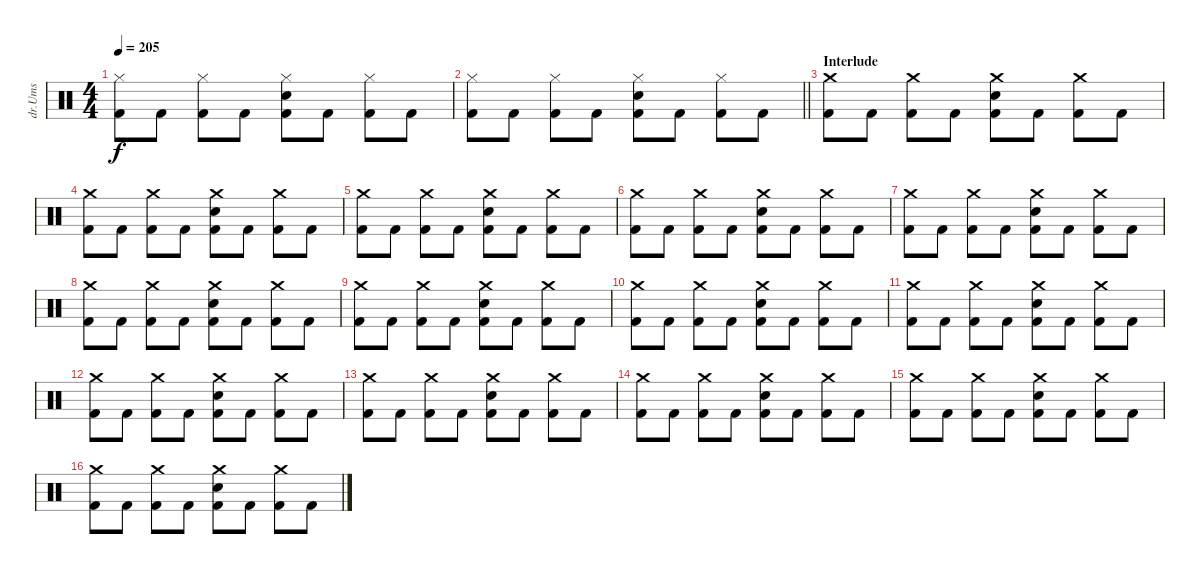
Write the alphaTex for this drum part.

\track ("dr.Ums" "dr.Ums") {instrument percussion}
\staff {score}
\articulation defaults
\ts (4 4)
\tempo 205
\clef neutral
\ks c
("Hi-Hat (closed)" "Kick (hit) 2").8{dy f} "Kick (hit) 2".8 ("Hi-Hat (closed)" "Kick (hit) 2").8 "Kick (hit) 2".8 ("Hi-Hat (closed)" "Snare (hit) 2" "Kick (hit) 2").8 "Kick (hit) 2".8 ("Hi-Hat (closed)" "Kick (hit) 2").8 "Kick (hit) 2".8 |
\barLineRight lightlight
("Hi-Hat (closed)" "Kick (hit) 2").8 "Kick (hit) 2".8 ("Hi-Hat (closed)" "Kick (hit) 2").8 "Kick (hit) 2".8 ("Hi-Hat (closed)" "Snare (hit) 2" "Kick (hit) 2").8 "Kick (hit) 2".8 ("Hi-Hat (closed)" "Kick (hit) 2").8 "Kick (hit) 2".8 |
\section ("" "Interlude")
("Crash medium (hit)" "Kick (hit) 2").8 "Kick (hit) 2".8 ("Crash medium (hit)" "Kick (hit) 2").8 "Kick (hit) 2".8 ("Crash medium (hit)" "Snare (hit) 2" "Kick (hit) 2").8 "Kick (hit) 2".8 ("Crash medium (hit)" "Kick (hit) 2").8 "Kick (hit) 2".8 |
("Crash medium (hit)" "Kick (hit) 2").8 "Kick (hit) 2".8 ("Crash medium (hit)" "Kick (hit) 2").8 "Kick (hit) 2".8 ("Crash medium (hit)" "Snare (hit) 2" "Kick (hit) 2").8 "Kick (hit) 2".8 ("Crash medium (hit)" "Kick (hit) 2").8 "Kick (hit) 2".8 |
("Crash medium (hit)" "Kick (hit) 2").8 "Kick (hit) 2".8 ("Crash medium (hit)" "Kick (hit) 2").8 "Kick (hit) 2".8 ("Crash medium (hit)" "Snare (hit) 2" "Kick (hit) 2").8 "Kick (hit) 2".8 ("Crash medium (hit)" "Kick (hit) 2").8 "Kick (hit) 2".8 |
("Crash medium (hit)" "Kick (hit) 2").8 "Kick (hit) 2".8 ("Crash medium (hit)" "Kick (hit) 2").8 "Kick (hit) 2".8 ("Crash medium (hit)" "Snare (hit) 2" "Kick (hit) 2").8 "Kick (hit) 2".8 ("Crash medium (hit)" "Kick (hit) 2").8 "Kick (hit) 2".8 |
("Crash medium (hit)" "Kick (hit) 2").8 "Kick (hit) 2".8 ("Crash medium (hit)" "Kick (hit) 2").8 "Kick (hit) 2".8 ("Crash medium (hit)" "Snare (hit) 2" "Kick (hit) 2").8 "Kick (hit) 2".8 ("Crash medium (hit)" "Kick (hit) 2").8 "Kick (hit) 2".8 |
("Crash medium (hit)" "Kick (hit) 2").8 "Kick (hit) 2".8 ("Crash medium (hit)" "Kick (hit) 2").8 "Kick (hit) 2".8 ("Crash medium (hit)" "Snare (hit) 2" "Kick (hit) 2").8 "Kick (hit) 2".8 ("Crash medium (hit)" "Kick (hit) 2").8 "Kick (hit) 2".8 |
("Crash medium (hit)" "Kick (hit) 2").8 "Kick (hit) 2".8 ("Crash medium (hit)" "Kick (hit) 2").8 "Kick (hit) 2".8 ("Crash medium (hit)" "Snare (hit) 2" "Kick (hit) 2").8 "Kick (hit) 2".8 ("Crash medium (hit)" "Kick (hit) 2").8 "Kick (hit) 2".8 |
("Crash medium (hit)" "Kick (hit) 2").8 "Kick (hit) 2".8 ("Crash medium (hit)" "Kick (hit) 2").8 "Kick (hit) 2".8 ("Crash medium (hit)" "Snare (hit) 2" "Kick (hit) 2").8 "Kick (hit) 2".8 ("Crash medium (hit)" "Kick (hit) 2").8 "Kick (hit) 2".8 |
("Crash medium (hit)" "Kick (hit) 2").8 "Kick (hit) 2".8 ("Crash medium (hit)" "Kick (hit) 2").8 "Kick (hit) 2".8 ("Crash medium (hit)" "Snare (hit) 2" "Kick (hit) 2").8 "Kick (hit) 2".8 ("Crash medium (hit)" "Kick (hit) 2").8 "Kick (hit) 2".8 |
("Crash medium (hit)" "Kick (hit) 2").8 "Kick (hit) 2".8 ("Crash medium (hit)" "Kick (hit) 2").8 "Kick (hit) 2".8 ("Crash medium (hit)" "Snare (hit) 2" "Kick (hit) 2").8 "Kick (hit) 2".8 ("Crash medium (hit)" "Kick (hit) 2").8 "Kick (hit) 2".8 |
("Crash medium (hit)" "Kick (hit) 2").8 "Kick (hit) 2".8 ("Crash medium (hit)" "Kick (hit) 2").8 "Kick (hit) 2".8 ("Crash medium (hit)" "Snare (hit) 2" "Kick (hit) 2").8 "Kick (hit) 2".8 ("Crash medium (hit)" "Kick (hit) 2").8 "Kick (hit) 2".8 |
("Crash medium (hit)" "Kick (hit) 2").8 "Kick (hit) 2".8 ("Crash medium (hit)" "Kick (hit) 2").8 "Kick (hit) 2".8 ("Crash medium (hit)" "Snare (hit) 2" "Kick (hit) 2").8 "Kick (hit) 2".8 ("Crash medium (hit)" "Kick (hit) 2").8 "Kick (hit) 2".8 |
("Crash medium (hit)" "Kick (hit) 2").8 "Kick (hit) 2".8 ("Crash medium (hit)" "Kick (hit) 2").8 "Kick (hit) 2".8 ("Crash medium (hit)" "Snare (hit) 2" "Kick (hit) 2").8 "Kick (hit) 2".8 ("Crash medium (hit)" "Kick (hit) 2").8 "Kick (hit) 2".8 |
("Crash medium (hit)" "Kick (hit) 2").8 "Kick (hit) 2".8 ("Crash medium (hit)" "Kick (hit) 2").8 "Kick (hit) 2".8 ("Crash medium (hit)" "Snare (hit) 2" "Kick (hit) 2").8 "Kick (hit) 2".8 ("Crash medium (hit)" "Kick (hit) 2").8 "Kick (hit) 2".8
